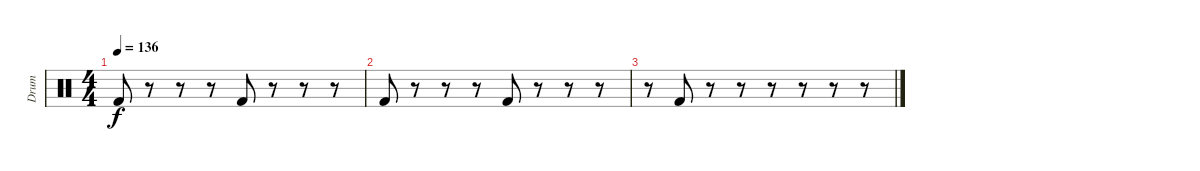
\track ("Drum" "Drum") {instrument percussion}
\staff {score}
\articulation defaults
\ts (4 4)
\tempo 136
\clef neutral
\ks c "Kick (hit) 2".8{dy f}
r.8 r.8 r.8 "Kick (hit) 2".8 r.8 r.8 r.8 |
"Kick (hit) 2".8 r.8 r.8 r.8 "Kick (hit) 2".8 r.8 r.8 r.8 |
r.8 "Kick (hit) 2".8 r.8 r.8 r.8 r.8 r.8 r.8
